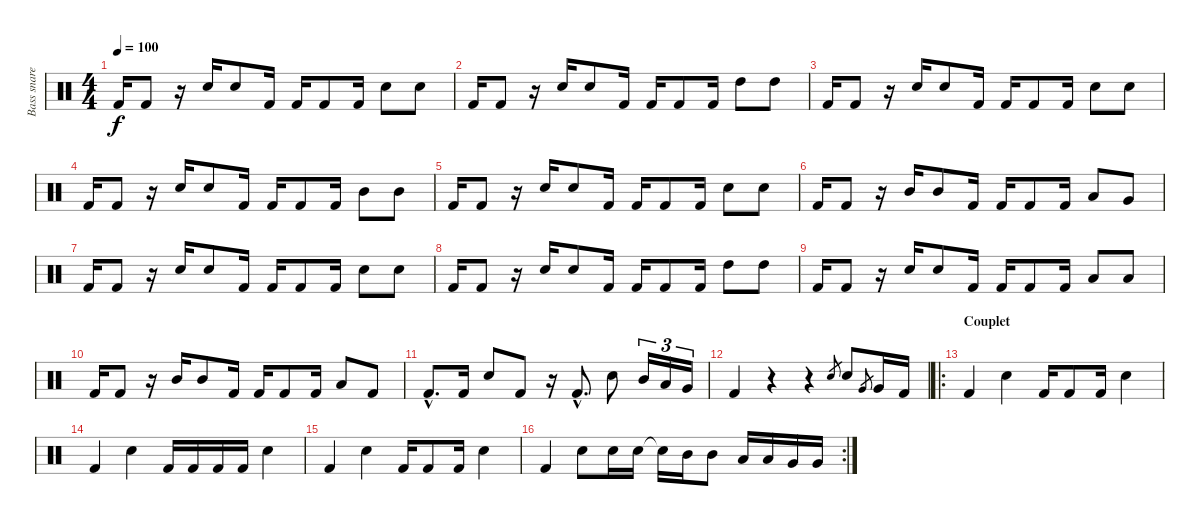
\track ("Bass snare tom" "Bass snare") {instrument percussion}
\staff {score}
\articulation defaults
\ts (4 4)
\tempo 100
\clef neutral
\ks c "Kick (hit) 2".16{dy f} "Kick (hit) 2".8
r.16 "Electric Snare (hit)".16 "Electric Snare (hit)".8 "Kick (hit) 2".16 "Kick (hit) 2".16 "Kick (hit) 2".8 "Kick (hit) 2".16 "Electric Snare (hit)".8 "Electric Snare (hit)".8 |
"Kick (hit) 2".16 "Kick (hit) 2".8 r.16 "Electric Snare (hit)".16 "Electric Snare (hit)".8 "Kick (hit) 2".16 "Kick (hit) 2".16 "Kick (hit) 2".8 "Kick (hit) 2".16 "High Tom (hit)".8 "High Tom (hit)".8 |
"Kick (hit) 2".16 "Kick (hit) 2".8 r.16 "Electric Snare (hit)".16 "Electric Snare (hit)".8 "Kick (hit) 2".16 "Kick (hit) 2".16 "Kick (hit) 2".8 "Kick (hit) 2".16 "Electric Snare (hit)".8 "Electric Snare (hit)".8 |
"Kick (hit) 2".16 "Kick (hit) 2".8 r.16 "Electric Snare (hit)".16 "Electric Snare (hit)".8 "Kick (hit) 2".16 "Kick (hit) 2".16 "Kick (hit) 2".8 "Kick (hit) 2".16 "Mid Tom (hit)".8 "Mid Tom (hit)".8 |
"Kick (hit) 2".16 "Kick (hit) 2".8 r.16 "Electric Snare (hit)".16 "Electric Snare (hit)".8 "Kick (hit) 2".16 "Kick (hit) 2".16 "Kick (hit) 2".8 "Kick (hit) 2".16 "Electric Snare (hit)".8 "Electric Snare (hit)".8 |
"Kick (hit) 2".16 "Kick (hit) 2".8 r.16 "Mid Tom (hit)".16 "Mid Tom (hit)".8 "Kick (hit) 2".16 "Kick (hit) 2".16 "Kick (hit) 2".8 "Kick (hit) 2".16 "Low Tom (hit)".8 "Very Low Tom (hit)".8 |
"Kick (hit) 2".16 "Kick (hit) 2".8 r.16 "Electric Snare (hit)".16 "Electric Snare (hit)".8 "Kick (hit) 2".16 "Kick (hit) 2".16 "Kick (hit) 2".8 "Kick (hit) 2".16 "Electric Snare (hit)".8 "Electric Snare (hit)".8 |
"Kick (hit) 2".16 "Kick (hit) 2".8 r.16 "Electric Snare (hit)".16 "Electric Snare (hit)".8 "Kick (hit) 2".16 "Kick (hit) 2".16 "Kick (hit) 2".8 "Kick (hit) 2".16 "High Tom (hit)".8 "High Tom (hit)".8 |
"Kick (hit) 2".16 "Kick (hit) 2".8 r.16 "Electric Snare (hit)".16 "Electric Snare (hit)".8 "Kick (hit) 2".16 "Kick (hit) 2".16 "Kick (hit) 2".8 "Kick (hit) 2".16 "Low Tom (hit)".8 "Low Tom (hit)".8 |
"Kick (hit) 2".16 "Kick (hit) 2".8 r.16 "Mid Tom (hit)".16 "Mid Tom (hit)".8 "Kick (hit) 2".16 "Kick (hit) 2".16 "Kick (hit) 2".8 "Kick (hit) 2".16 "Low Tom (hit)".8 "Kick (hit) 2".8 |
"Kick (hit) 2"{hac}.8{d} "Kick (hit) 2".16 "Electric Snare (hit)".8 "Kick (hit) 2".8 r.16 "Kick (hit) 2"{hac}.8{d} "Electric Snare (hit)".8 "Mid Tom (hit)".16{tu (3 2)} "Low Tom (hit)".16{tu (3 2)} "Very Low Tom (hit)".16{tu (3 2)} |
"Kick (hit) 2".4 r.4 r.4 "Electric Snare (hit)".8{gr} "Electric Snare (hit)".8 "Very Low Tom (hit)".8{gr} "Very Low Tom (hit)".16 "Kick (hit) 2".16 |
\ro
\section ("" "Couplet")
"Kick (hit) 2".4 "Electric Snare (hit)".4 "Kick (hit) 2".16 "Kick (hit) 2".8 "Kick (hit) 2".16 "Electric Snare (hit)".4 |
"Kick (hit) 2".4 "Electric Snare (hit)".4 "Kick (hit) 2".16 "Kick (hit) 2".16 "Kick (hit) 2".16 "Kick (hit) 2".16 "Electric Snare (hit)".4 |
"Kick (hit) 2".4 "Electric Snare (hit)".4 "Kick (hit) 2".16 "Kick (hit) 2".8 "Kick (hit) 2".16 "Electric Snare (hit)".4 |
\rc 2 "Kick (hit) 2".4 "Electric Snare (hit)".8 "Electric Snare (hit)".16 "Electric Snare (hit)".16 "Snare (hit)"{t}.16 "Mid Tom (hit)".16 "Mid Tom (hit)".8 "Low Tom (hit)".16 "Low Tom (hit)".16 "Very Low Tom (hit)".16 "Very Low Tom (hit)".16
